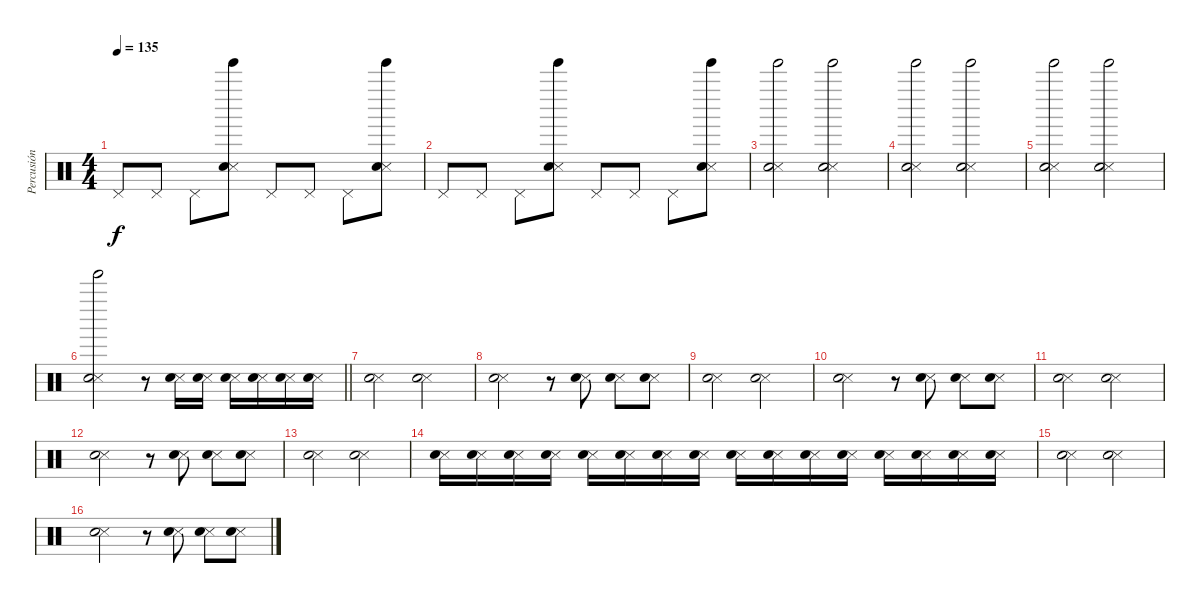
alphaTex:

\track ("Percusión" "Percusión") {instrument percussion}
\staff {score}
\articulation defaults
\ts (4 4)
\tempo 135
\clef neutral
\ks c "Pedal Hi-Hat (hit)".8{dy f} "Pedal Hi-Hat (hit)".8 "Pedal Hi-Hat (hit)".8
("Tinkle Bell (hit)" "Snare (side stick) 3" "Snare (hit) 2").8 "Pedal Hi-Hat (hit)".8 "Pedal Hi-Hat (hit)".8 "Pedal Hi-Hat (hit)".8 ("Tinkle Bell (hit)" "Snare (side stick) 3" "Snare (hit) 2").8 |
"Pedal Hi-Hat (hit)".8 "Pedal Hi-Hat (hit)".8 "Pedal Hi-Hat (hit)".8 ("Tinkle Bell (hit)" "Snare (side stick) 3" "Snare (hit) 2").8 "Pedal Hi-Hat (hit)".8 "Pedal Hi-Hat (hit)".8 "Pedal Hi-Hat (hit)".8 ("Tinkle Bell (hit)" "Snare (side stick) 3" "Snare (hit) 2").8 |
("Tinkle Bell (hit)" "Snare (side stick) 3" "Snare (hit) 2").2 ("Tinkle Bell (hit)" "Snare (side stick) 3" "Snare (hit) 2").2 |
("Tinkle Bell (hit)" "Snare (side stick) 3" "Snare (hit) 2").2 ("Tinkle Bell (hit)" "Snare (side stick) 3" "Snare (hit) 2").2 |
("Tinkle Bell (hit)" "Snare (side stick) 3" "Snare (hit) 2").2 ("Tinkle Bell (hit)" "Snare (side stick) 3" "Snare (hit) 2").2 |
\barLineRight lightlight
("Tinkle Bell (hit)" "Snare (side stick) 3" "Snare (hit) 2").2 r.8 ("Snare (side stick) 3" "Snare (hit) 2").16 ("Snare (side stick) 3" "Snare (hit) 2").16 ("Snare (side stick) 3" "Snare (hit) 2").16 ("Snare (side stick) 3" "Snare (hit) 2").16 ("Snare (side stick) 3" "Snare (hit) 2").16 ("Snare (side stick) 3" "Snare (hit) 2").16 |
("Snare (side stick) 3" "Snare (hit) 2").2 ("Snare (side stick) 3" "Snare (hit) 2").2 |
("Snare (side stick) 3" "Snare (hit) 2").2 r.8 ("Snare (side stick) 3" "Snare (hit) 2").8 ("Snare (side stick) 3" "Snare (hit) 2").8 ("Snare (side stick) 3" "Snare (hit) 2").8 |
("Snare (side stick) 3" "Snare (hit) 2").2 ("Snare (side stick) 3" "Snare (hit) 2").2 |
("Snare (side stick) 3" "Snare (hit) 2").2 r.8 ("Snare (side stick) 3" "Snare (hit) 2").8 ("Snare (side stick) 3" "Snare (hit) 2").8 ("Snare (side stick) 3" "Snare (hit) 2").8 |
("Snare (side stick) 3" "Snare (hit) 2").2 ("Snare (side stick) 3" "Snare (hit) 2").2 |
("Snare (side stick) 3" "Snare (hit) 2").2 r.8 ("Snare (side stick) 3" "Snare (hit) 2").8 ("Snare (side stick) 3" "Snare (hit) 2").8 ("Snare (side stick) 3" "Snare (hit) 2").8 |
("Snare (side stick) 3" "Snare (hit) 2").2 ("Snare (side stick) 3" "Snare (hit) 2").2 |
("Snare (side stick) 3" "Snare (hit) 2").16 ("Snare (side stick) 3" "Snare (hit) 2").16 ("Snare (side stick) 3" "Snare (hit) 2").16 ("Snare (side stick) 3" "Snare (hit) 2").16 ("Snare (side stick) 3" "Snare (hit) 2").16 ("Snare (side stick) 3" "Snare (hit) 2").16 ("Snare (side stick) 3" "Snare (hit) 2").16 ("Snare (side stick) 3" "Snare (hit) 2").16 ("Snare (side stick) 3" "Snare (hit) 2").16 ("Snare (side stick) 3" "Snare (hit) 2").16 ("Snare (side stick) 3" "Snare (hit) 2").16 ("Snare (side stick) 3" "Snare (hit) 2").16 ("Snare (side stick) 3" "Snare (hit) 2").16 ("Snare (side stick) 3" "Snare (hit) 2").16 ("Snare (side stick) 3" "Snare (hit) 2").16 ("Snare (side stick) 3" "Snare (hit) 2").16 |
("Snare (side stick) 3" "Snare (hit) 2").2 ("Snare (side stick) 3" "Snare (hit) 2").2 |
("Snare (side stick) 3" "Snare (hit) 2").2 r.8 ("Snare (side stick) 3" "Snare (hit) 2").8 ("Snare (side stick) 3" "Snare (hit) 2").8 ("Snare (side stick) 3" "Snare (hit) 2").8
